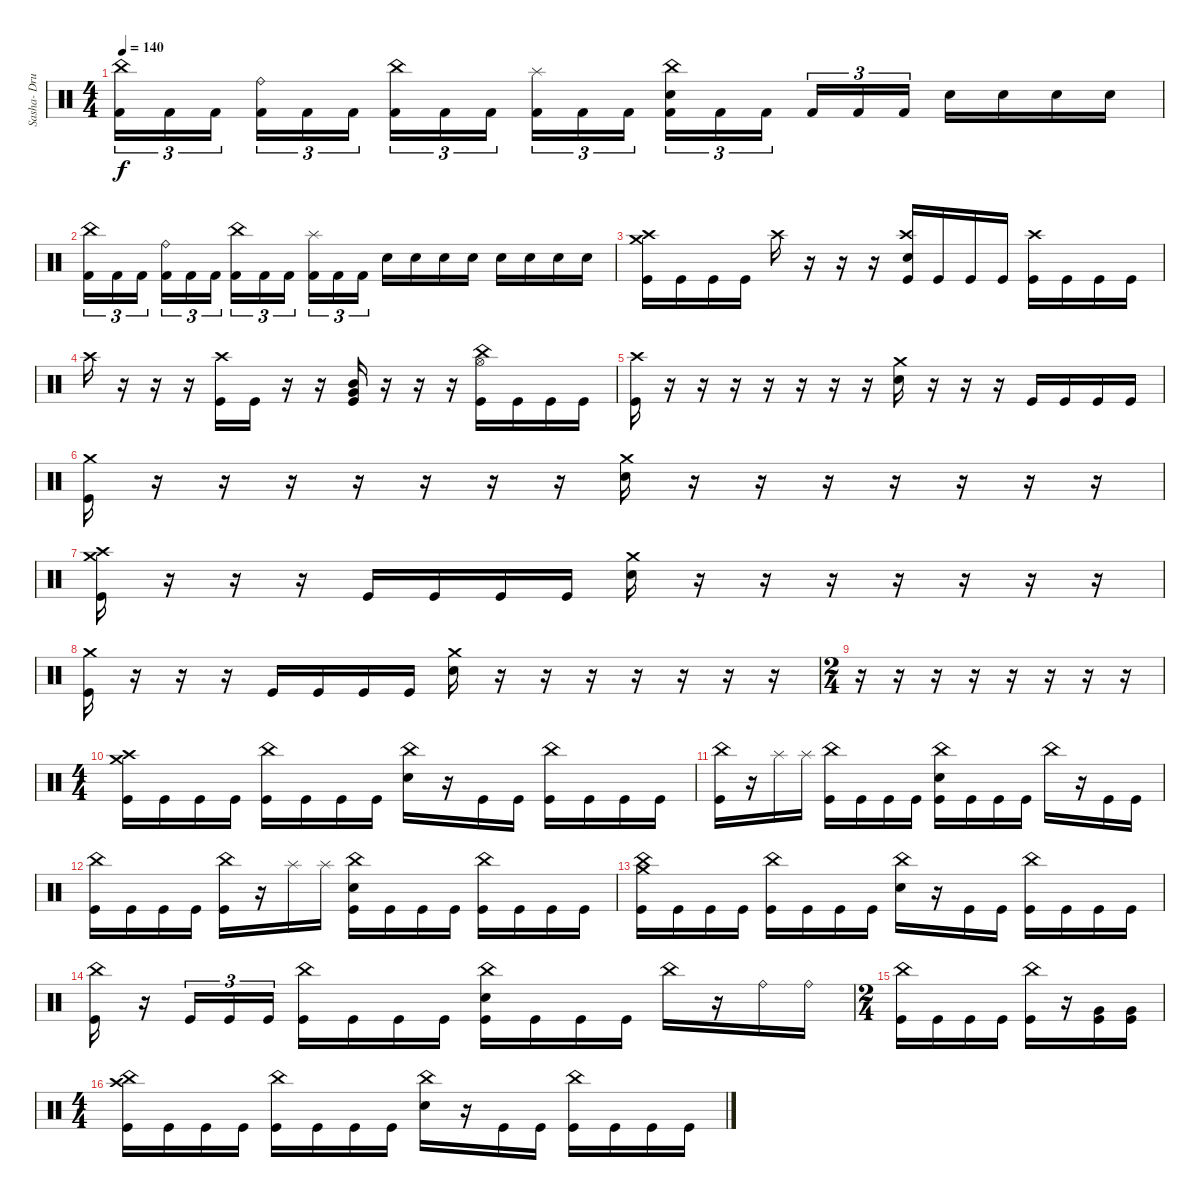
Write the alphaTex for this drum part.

\track ("Sasha- Drums" "Sasha- Dru") {instrument percussion}
\staff {score}
\articulation defaults
\ts (4 4)
\tempo 140
\clef neutral
\ks c
("China (hit)" "Kick (hit) 2").16{tu (3 2) dy f} "Kick (hit) 2".16{tu (3 2)} "Kick (hit) 2".16{tu (3 2) beam splitsecondary} ("Ride (bell)" "Kick (hit) 2").16{tu (3 2)} "Kick (hit) 2".16{tu (3 2)} "Kick (hit) 2".16{tu (3 2)} ("China (hit)" "Kick (hit) 2").16{tu (3 2)} "Kick (hit) 2".16{tu (3 2)} "Kick (hit) 2".16{tu (3 2) beam splitsecondary} ("Splash (hit)" "Kick (hit) 2").16{tu (3 2)} "Kick (hit) 2".16{tu (3 2)} "Kick (hit) 2".16{tu (3 2)} ("China (hit)" "Electric Snare (hit)" "Kick (hit) 2").16{tu (3 2)} "Kick (hit) 2".16{tu (3 2)} "Kick (hit) 2".16{tu (3 2) beam splitsecondary} "Kick (hit) 2".16{tu (3 2)} "Kick (hit) 2".16{tu (3 2)} "Kick (hit) 2".16{tu (3 2)} "Electric Snare (hit)".16 "Electric Snare (hit)".16 "Electric Snare (hit)".16 "Electric Snare (hit)".16 |
("China (hit)" "Kick (hit) 2").16{tu (3 2)} "Kick (hit) 2".16{tu (3 2)} "Kick (hit) 2".16{tu (3 2) beam splitsecondary} ("Ride (bell)" "Kick (hit) 2").16{tu (3 2)} "Kick (hit) 2".16{tu (3 2)} "Kick (hit) 2".16{tu (3 2)} ("China (hit)" "Kick (hit) 2").16{tu (3 2)} "Kick (hit) 2".16{tu (3 2)} "Kick (hit) 2".16{tu (3 2) beam splitsecondary} ("Splash (hit)" "Kick (hit) 2").16{tu (3 2)} "Kick (hit) 2".16{tu (3 2)} "Kick (hit) 2".16{tu (3 2)} "Electric Snare (hit)".16 "Electric Snare (hit)".16 "Electric Snare (hit)".16 "Electric Snare (hit)".16 "Electric Snare (hit)".16 "Electric Snare (hit)".16 "Electric Snare (hit)".16 "Electric Snare (hit)".16 |
("Kick (hit)" "Crash high (hit)" "Crash medium (hit)").16 "Kick (hit)".16 "Kick (hit)".16 "Kick (hit)".16 "Crash high (hit)".16 r.16 r.16 r.16 ("Kick (hit)" "Crash high (hit)" "Snare (hit) 2").16 "Kick (hit)".16 "Kick (hit)".16 "Kick (hit)".16 ("Kick (hit)" "Crash high (hit)").16 "Kick (hit)".16 "Kick (hit)".16 "Kick (hit)".16 |
"Crash high (hit)".16 r.16 r.16 r.16 ("Kick (hit)" "Crash high (hit)").16 "Kick (hit)".16 r.16 r.16 ("Kick (hit)" "Mid Tom (hit)" "Very Low Tom (hit)").16 r.16 r.16 r.16 ("Kick (hit)" "China (hit)" "Hi-Hat (open)").16 "Kick (hit)".16 "Kick (hit)".16 "Kick (hit)".16 |
("Kick (hit)" "Crash high (hit)").16 r.16 r.16 r.16 r.16 r.16 r.16 r.16 ("Crash medium (hit)" "Snare (hit) 2").16 r.16 r.16 r.16 "Kick (hit)".16 "Kick (hit)".16 "Kick (hit)".16 "Kick (hit)".16 |
("Kick (hit)" "Crash medium (hit)").16 r.16 r.16 r.16 r.16 r.16 r.16 r.16 ("Crash medium (hit)" "Snare (hit) 2").16 r.16 r.16 r.16 r.16 r.16 r.16 r.16 |
("Kick (hit)" "Crash medium (hit)" "Crash high (hit)").16 r.16 r.16 r.16 "Kick (hit)".16 "Kick (hit)".16 "Kick (hit)".16 "Kick (hit)".16 ("Crash medium (hit)" "Snare (hit) 2").16 r.16 r.16 r.16 r.16 r.16 r.16 r.16 |
("Kick (hit)" "Crash medium (hit)").16 r.16 r.16 r.16 "Kick (hit)".16 "Kick (hit)".16 "Kick (hit)".16 "Kick (hit)".16 ("Snare (hit) 2" "Crash medium (hit)").16 r.16 r.16 r.16 r.16 r.16 r.16 r.16 |
\ts (2 4)
r.16 r.16 r.16 r.16 r.16 r.16 r.16 r.16 |
\ts (4 4)
("Kick (hit)" "Crash high (hit)" "Crash medium (hit)").16 "Kick (hit)".16 "Kick (hit)".16 "Kick (hit)".16 ("Kick (hit)" "China (hit)").16 "Kick (hit)".16 "Kick (hit)".16 "Kick (hit)".16 ("China (hit)" "Snare (hit) 2").16 r.16 "Kick (hit)".16 "Kick (hit)".16 ("Kick (hit)" "China (hit)").16 "Kick (hit)".16 "Kick (hit)".16 "Kick (hit)".16 |
("Kick (hit)" "China (hit)").16 r.16 "Splash (hit)".16 "Splash (hit)".16 ("Kick (hit)" "China (hit)").16 "Kick (hit)".16 "Kick (hit)".16 "Kick (hit)".16 ("Kick (hit)" "China (hit)" "Snare (hit) 2").16 "Kick (hit)".16 "Kick (hit)".16 "Kick (hit)".16 "China (hit)".16 r.16 "Kick (hit)".16 "Kick (hit)".16 |
("Kick (hit)" "China (hit)").16 "Kick (hit)".16 "Kick (hit)".16 "Kick (hit)".16 ("Kick (hit)" "China (hit)").16 r.16 "Splash (hit)".16 "Splash (hit)".16 ("Kick (hit)" "China (hit)" "Snare (hit) 2").16 "Kick (hit)".16 "Kick (hit)".16 "Kick (hit)".16 ("Kick (hit)" "China (hit)").16 "Kick (hit)".16 "Kick (hit)".16 "Kick (hit)".16 |
("Kick (hit)" "China (hit)" "Crash medium (hit)").16 "Kick (hit)".16 "Kick (hit)".16 "Kick (hit)".16 ("Kick (hit)" "China (hit)").16 "Kick (hit)".16 "Kick (hit)".16 "Kick (hit)".16 ("China (hit)" "Snare (hit) 2").16 r.16 "Kick (hit)".16 "Kick (hit)".16 ("Kick (hit)" "China (hit)").16 "Kick (hit)".16 "Kick (hit)".16 "Kick (hit)".16 |
("Kick (hit)" "China (hit)").16 r.16 "Kick (hit)".16{tu (3 2)} "Kick (hit)".16{tu (3 2)} "Kick (hit)".16{tu (3 2)} ("Kick (hit)" "China (hit)").16 "Kick (hit)".16 "Kick (hit)".16 "Kick (hit)".16 ("Kick (hit)" "China (hit)" "Snare (hit) 2").16 "Kick (hit)".16 "Kick (hit)".16 "Kick (hit)".16 "China (hit)".16 r.16 "Ride (bell)".16 "Ride (bell)".16 |
\ts (2 4)
("Kick (hit)" "China (hit)").16 "Kick (hit)".16 "Kick (hit)".16 "Kick (hit)".16 ("Kick (hit)" "China (hit)").16 r.16 ("Very Low Tom (hit)" "Kick (hit)").16 ("Very Low Tom (hit)" "Kick (hit)").16 |
\ts (4 4)
("Kick (hit)" "Crash high (hit)" "China (hit)").16 "Kick (hit)".16 "Kick (hit)".16 "Kick (hit)".16 ("Kick (hit)" "China (hit)").16 "Kick (hit)".16 "Kick (hit)".16 "Kick (hit)".16 ("China (hit)" "Snare (hit) 2").16 r.16 "Kick (hit)".16 "Kick (hit)".16 ("Kick (hit)" "China (hit)").16 "Kick (hit)".16 "Kick (hit)".16 "Kick (hit)".16
